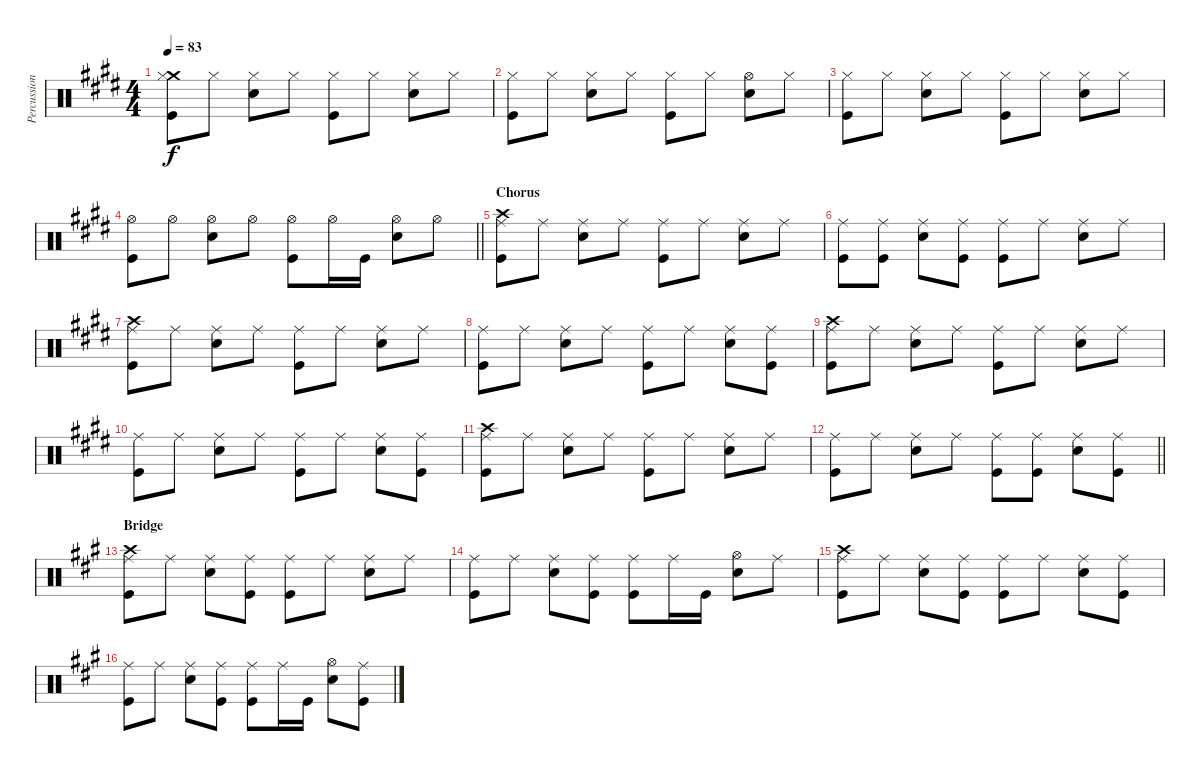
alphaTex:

\track ("Percussion" "Percussion") {instrument percussion}
\staff {score}
\articulation defaults
\ts (4 4)
\tempo 83
\clef neutral
\ks e
("Crash medium (hit)" "Hi-Hat (closed)" "Kick (hit)").8{dy f} "Hi-Hat (closed)".8 ("Hi-Hat (closed)" "Electric Snare (hit)").8 "Hi-Hat (closed)".8 ("Hi-Hat (closed)" "Kick (hit)").8 "Hi-Hat (closed)".8 ("Hi-Hat (closed)" "Electric Snare (hit)").8 "Hi-Hat (closed)".8 |
("Hi-Hat (closed)" "Kick (hit)").8 "Hi-Hat (closed)".8 ("Hi-Hat (closed)" "Electric Snare (hit)").8 "Hi-Hat (closed)".8 ("Hi-Hat (closed)" "Kick (hit)").8 "Hi-Hat (closed)".8 ("Hi-Hat (open)" "Electric Snare (hit)").8 "Hi-Hat (closed)".8 |
("Hi-Hat (closed)" "Kick (hit)").8 "Hi-Hat (closed)".8 ("Hi-Hat (closed)" "Electric Snare (hit)").8 "Hi-Hat (closed)".8 ("Hi-Hat (closed)" "Kick (hit)").8 "Hi-Hat (closed)".8 ("Hi-Hat (closed)" "Electric Snare (hit)").8 "Hi-Hat (closed)".8 |
\barLineRight lightlight
("Hi-Hat (open)" "Kick (hit)").8 "Hi-Hat (open)".8 ("Hi-Hat (open)" "Electric Snare (hit)").8 "Hi-Hat (open)".8 ("Hi-Hat (open)" "Kick (hit)").8 "Hi-Hat (open)".16 "Kick (hit)".16 ("Hi-Hat (open)" "Electric Snare (hit)").8 "Hi-Hat (open)".8 |
\section ("" "Chorus")
("Crash high (hit)" "Ride (middle)" "Kick (hit)").8 "Ride (middle)".8 ("Ride (middle)" "Electric Snare (hit)").8 "Ride (middle)".8 ("Ride (middle)" "Kick (hit)").8 "Ride (middle)".8 ("Ride (middle)" "Electric Snare (hit)").8 "Ride (middle)".8 |
("Ride (middle)" "Kick (hit)").8 ("Ride (middle)" "Kick (hit)").8 ("Ride (middle)" "Electric Snare (hit)").8 ("Ride (middle)" "Kick (hit)").8 ("Ride (middle)" "Kick (hit)").8 "Ride (middle)".8 ("Ride (middle)" "Electric Snare (hit)").8 "Ride (middle)".8 |
("Crash high (hit)" "Ride (middle)" "Kick (hit)").8 "Ride (middle)".8 ("Ride (middle)" "Electric Snare (hit)").8 "Ride (middle)".8 ("Ride (middle)" "Kick (hit)").8 "Ride (middle)".8 ("Ride (middle)" "Electric Snare (hit)").8 "Ride (middle)".8 |
("Ride (middle)" "Kick (hit)").8 "Ride (middle)".8 ("Ride (middle)" "Electric Snare (hit)").8 "Ride (middle)".8 ("Ride (middle)" "Kick (hit)").8 "Ride (middle)".8 ("Ride (middle)" "Electric Snare (hit)").8 ("Ride (middle)" "Kick (hit)").8 |
("Crash high (hit)" "Ride (middle)" "Kick (hit)").8 "Ride (middle)".8 ("Ride (middle)" "Electric Snare (hit)").8 "Ride (middle)".8 ("Ride (middle)" "Kick (hit)").8 "Ride (middle)".8 ("Ride (middle)" "Electric Snare (hit)").8 "Ride (middle)".8 |
("Ride (middle)" "Kick (hit)").8 "Ride (middle)".8 ("Ride (middle)" "Electric Snare (hit)").8 "Ride (middle)".8 ("Ride (middle)" "Kick (hit)").8 "Ride (middle)".8 ("Ride (middle)" "Electric Snare (hit)").8 ("Ride (middle)" "Kick (hit)").8 |
("Crash high (hit)" "Ride (middle)" "Kick (hit)").8 "Ride (middle)".8 ("Ride (middle)" "Electric Snare (hit)").8 "Ride (middle)".8 ("Ride (middle)" "Kick (hit)").8 "Ride (middle)".8 ("Ride (middle)" "Electric Snare (hit)").8 "Ride (middle)".8 |
\barLineRight lightlight
("Ride (middle)" "Kick (hit)").8 "Ride (middle)".8 ("Ride (middle)" "Electric Snare (hit)").8 "Ride (middle)".8 ("Ride (middle)" "Kick (hit)").8 ("Ride (middle)" "Kick (hit)").8 ("Ride (middle)" "Electric Snare (hit)").8 ("Ride (middle)" "Kick (hit)").8 |
\section ("" "Bridge")
\ks a
("Crash high (hit)" "Ride (middle)" "Kick (hit)").8 "Ride (middle)".8 ("Ride (middle)" "Electric Snare (hit)").8 ("Ride (middle)" "Kick (hit)").8 ("Ride (middle)" "Kick (hit)").8 "Ride (middle)".8 ("Ride (middle)" "Electric Snare (hit)").8 "Ride (middle)".8 |
("Ride (middle)" "Kick (hit)").8 "Ride (middle)".8 ("Ride (middle)" "Electric Snare (hit)").8 ("Ride (middle)" "Kick (hit)").8 ("Ride (middle)" "Kick (hit)").8 "Ride (middle)".16 "Kick (hit)".16 ("Hi-Hat (open)" "Electric Snare (hit)").8 "Ride (middle)".8 |
("Crash high (hit)" "Ride (middle)" "Kick (hit)").8 "Ride (middle)".8 ("Ride (middle)" "Electric Snare (hit)").8 ("Ride (middle)" "Kick (hit)").8 ("Ride (middle)" "Kick (hit)").8 "Ride (middle)".8 ("Ride (middle)" "Electric Snare (hit)").8 ("Ride (middle)" "Kick (hit)").8 |
("Ride (middle)" "Kick (hit)").8 "Ride (middle)".8 ("Ride (middle)" "Electric Snare (hit)").8 ("Ride (middle)" "Kick (hit)").8 ("Ride (middle)" "Kick (hit)").8 "Ride (middle)".16 "Kick (hit)".16 ("Hi-Hat (open)" "Electric Snare (hit)").8 ("Ride (middle)" "Kick (hit)").8
